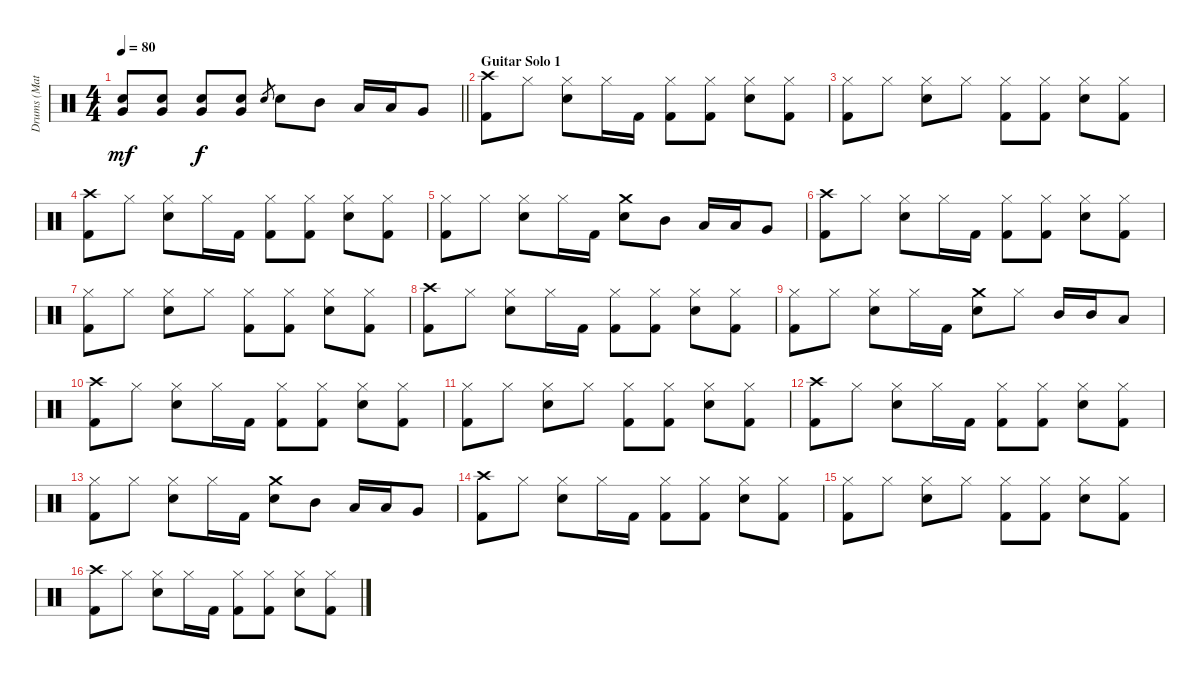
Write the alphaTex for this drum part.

\track ("Drums (Matt)" "Drums (Mat") {instrument percussion}
\staff {score}
\articulation defaults
\ts (4 4)
\tempo 80
\clef neutral
\barLineRight lightlight
\ks c
("Very Low Tom (hit)" "Snare (hit) 2").8{dy mf} ("Very Low Tom (hit)" "Snare (hit) 2").8 ("Very Low Tom (hit)" "Snare (hit) 2").8{dy f} ("Very Low Tom (hit)" "Snare (hit) 2").8 "Snare (hit) 2".8{gr} "Snare (hit) 2".8 "Mid Tom (hit)".8 "Low Tom (hit)".16 "Low Tom (hit)".16 "Very Low Tom (hit)".8 |
\section ("" "Guitar Solo 1")
("Crash high (hit)" "Kick (hit) 2").8 "Hi-Hat (closed)".8 ("Hi-Hat (closed)" "Snare (hit) 2").8 "Hi-Hat (closed)".16 "Kick (hit) 2".16 ("Hi-Hat (closed)" "Kick (hit) 2").8 ("Hi-Hat (closed)" "Kick (hit) 2").8 ("Hi-Hat (closed)" "Snare (hit) 2").8 ("Hi-Hat (closed)" "Kick (hit) 2").8 |
("Hi-Hat (closed)" "Kick (hit) 2").8 "Hi-Hat (closed)".8 ("Hi-Hat (closed)" "Snare (hit) 2").8 "Hi-Hat (closed)".8 ("Hi-Hat (closed)" "Kick (hit) 2").8 ("Hi-Hat (closed)" "Kick (hit) 2").8 ("Hi-Hat (closed)" "Snare (hit) 2").8 ("Hi-Hat (closed)" "Kick (hit) 2").8 |
("Crash high (hit)" "Kick (hit) 2").8 "Hi-Hat (closed)".8 ("Hi-Hat (closed)" "Snare (hit) 2").8 "Hi-Hat (closed)".16 "Kick (hit) 2".16 ("Hi-Hat (closed)" "Kick (hit) 2").8 ("Hi-Hat (closed)" "Kick (hit) 2").8 ("Hi-Hat (closed)" "Snare (hit) 2").8 ("Hi-Hat (closed)" "Kick (hit) 2").8 |
("Hi-Hat (closed)" "Kick (hit) 2").8 "Hi-Hat (closed)".8 ("Hi-Hat (closed)" "Snare (hit) 2").8 "Hi-Hat (closed)".16 "Kick (hit) 2".16 ("Crash medium (hit)" "Snare (hit) 2").8 "Mid Tom (hit)".8 "Low Tom (hit)".16 "Low Tom (hit)".16 "Very Low Tom (hit)".8 |
("Crash high (hit)" "Kick (hit) 2").8 "Hi-Hat (closed)".8 ("Hi-Hat (closed)" "Snare (hit) 2").8 "Hi-Hat (closed)".16 "Kick (hit) 2".16 ("Hi-Hat (closed)" "Kick (hit) 2").8 ("Hi-Hat (closed)" "Kick (hit) 2").8 ("Hi-Hat (closed)" "Snare (hit) 2").8 ("Hi-Hat (closed)" "Kick (hit) 2").8 |
("Hi-Hat (closed)" "Kick (hit) 2").8 "Hi-Hat (closed)".8 ("Hi-Hat (closed)" "Snare (hit) 2").8 "Hi-Hat (closed)".8 ("Hi-Hat (closed)" "Kick (hit) 2").8 ("Hi-Hat (closed)" "Kick (hit) 2").8 ("Hi-Hat (closed)" "Snare (hit) 2").8 ("Hi-Hat (closed)" "Kick (hit) 2").8 |
("Crash high (hit)" "Kick (hit) 2").8 "Hi-Hat (closed)".8 ("Hi-Hat (closed)" "Snare (hit) 2").8 "Hi-Hat (closed)".16 "Kick (hit) 2".16 ("Hi-Hat (closed)" "Kick (hit) 2").8 ("Hi-Hat (closed)" "Kick (hit) 2").8 ("Hi-Hat (closed)" "Snare (hit) 2").8 ("Hi-Hat (closed)" "Kick (hit) 2").8 |
("Hi-Hat (closed)" "Kick (hit) 2").8 "Hi-Hat (closed)".8 ("Hi-Hat (closed)" "Snare (hit) 2").8 "Hi-Hat (closed)".16 "Kick (hit) 2".16 ("Crash medium (hit)" "Snare (hit) 2").8 "Hi-Hat (closed)".8 "Mid Tom (hit)".16 "Mid Tom (hit)".16 "Low Tom (hit)".8 |
("Crash high (hit)" "Kick (hit) 2").8 "Hi-Hat (closed)".8 ("Hi-Hat (closed)" "Snare (hit) 2").8 "Hi-Hat (closed)".16 "Kick (hit) 2".16 ("Hi-Hat (closed)" "Kick (hit) 2").8 ("Hi-Hat (closed)" "Kick (hit) 2").8 ("Hi-Hat (closed)" "Snare (hit) 2").8 ("Hi-Hat (closed)" "Kick (hit) 2").8 |
("Hi-Hat (closed)" "Kick (hit) 2").8 "Hi-Hat (closed)".8 ("Hi-Hat (closed)" "Snare (hit) 2").8 "Hi-Hat (closed)".8 ("Hi-Hat (closed)" "Kick (hit) 2").8 ("Hi-Hat (closed)" "Kick (hit) 2").8 ("Hi-Hat (closed)" "Snare (hit) 2").8 ("Hi-Hat (closed)" "Kick (hit) 2").8 |
("Crash high (hit)" "Kick (hit) 2").8 "Hi-Hat (closed)".8 ("Hi-Hat (closed)" "Snare (hit) 2").8 "Hi-Hat (closed)".16 "Kick (hit) 2".16 ("Hi-Hat (closed)" "Kick (hit) 2").8 ("Hi-Hat (closed)" "Kick (hit) 2").8 ("Hi-Hat (closed)" "Snare (hit) 2").8 ("Hi-Hat (closed)" "Kick (hit) 2").8 |
("Hi-Hat (closed)" "Kick (hit) 2").8 "Hi-Hat (closed)".8 ("Hi-Hat (closed)" "Snare (hit) 2").8 "Hi-Hat (closed)".16 "Kick (hit) 2".16 ("Crash medium (hit)" "Snare (hit) 2").8 "Mid Tom (hit)".8 "Low Tom (hit)".16 "Low Tom (hit)".16 "Very Low Tom (hit)".8 |
("Crash high (hit)" "Kick (hit) 2").8 "Hi-Hat (closed)".8 ("Hi-Hat (closed)" "Snare (hit) 2").8 "Hi-Hat (closed)".16 "Kick (hit) 2".16 ("Hi-Hat (closed)" "Kick (hit) 2").8 ("Hi-Hat (closed)" "Kick (hit) 2").8 ("Hi-Hat (closed)" "Snare (hit) 2").8 ("Hi-Hat (closed)" "Kick (hit) 2").8 |
("Hi-Hat (closed)" "Kick (hit) 2").8 "Hi-Hat (closed)".8 ("Hi-Hat (closed)" "Snare (hit) 2").8 "Hi-Hat (closed)".8 ("Hi-Hat (closed)" "Kick (hit) 2").8 ("Hi-Hat (closed)" "Kick (hit) 2").8 ("Hi-Hat (closed)" "Snare (hit) 2").8 ("Hi-Hat (closed)" "Kick (hit) 2").8 |
("Crash high (hit)" "Kick (hit) 2").8 "Hi-Hat (closed)".8 ("Hi-Hat (closed)" "Snare (hit) 2").8 "Hi-Hat (closed)".16 "Kick (hit) 2".16 ("Hi-Hat (closed)" "Kick (hit) 2").8 ("Hi-Hat (closed)" "Kick (hit) 2").8 ("Hi-Hat (closed)" "Snare (hit) 2").8 ("Hi-Hat (closed)" "Kick (hit) 2").8
